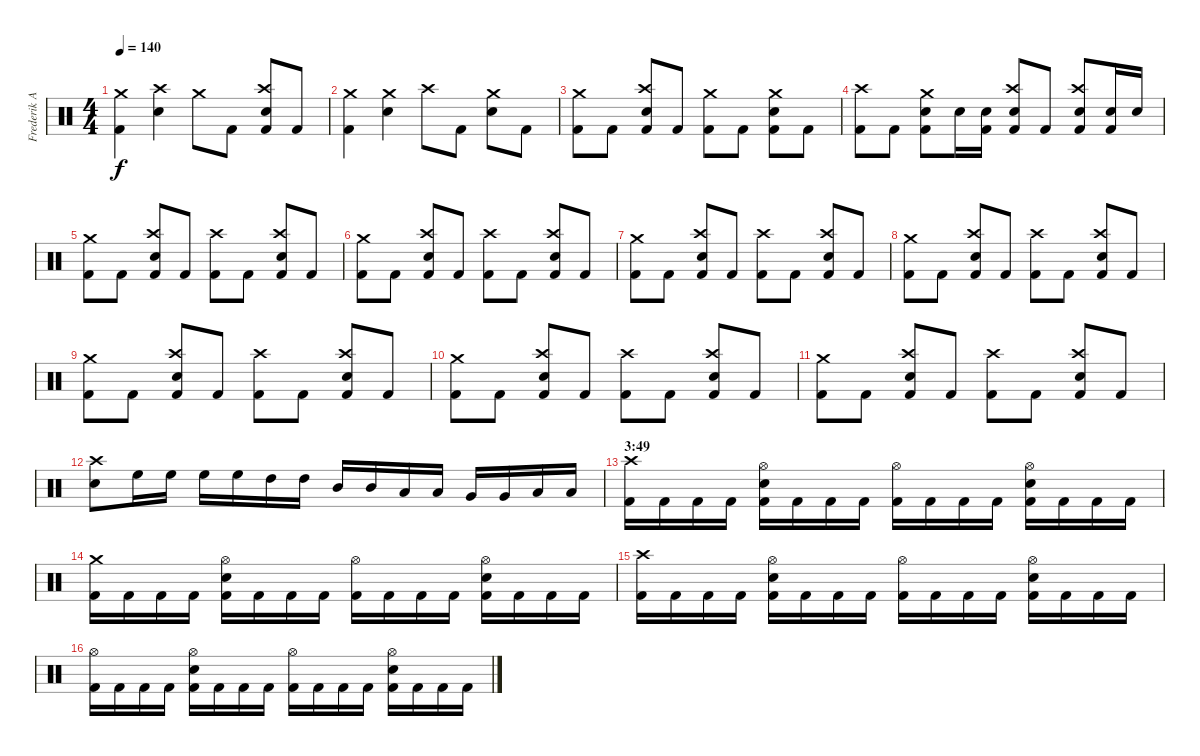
\track ("Frederik Anderson" "Frederik A") {instrument percussion}
\staff {score}
\articulation defaults
\ts (4 4)
\tempo 140
\clef neutral
\ks c
("Crash medium (hit)" "Kick (hit) 2").4{dy f} ("Crash high (hit)" "Electric Snare (hit)").4 "Crash medium (hit)".8 "Kick (hit) 2".8 ("Crash high (hit)" "Electric Snare (hit)" "Kick (hit) 2").8 "Kick (hit) 2".8 |
("Crash medium (hit)" "Kick (hit) 2").4 ("Crash medium (hit)" "Electric Snare (hit)").4 "Crash high (hit)".8 "Kick (hit) 2".8 ("Crash medium (hit)" "Electric Snare (hit)").8 "Kick (hit) 2".8 |
("Crash medium (hit)" "Kick (hit) 2").8 "Kick (hit) 2".8 ("Crash high (hit)" "Electric Snare (hit)" "Kick (hit) 2").8 "Kick (hit) 2".8 ("Crash medium (hit)" "Kick (hit) 2").8 "Kick (hit) 2".8 ("Crash medium (hit)" "Electric Snare (hit)" "Kick (hit) 2").8 "Kick (hit) 2".8 |
("Crash high (hit)" "Kick (hit) 2").8 "Kick (hit) 2".8 ("Crash medium (hit)" "Electric Snare (hit)" "Kick (hit) 2").8 "Electric Snare (hit)".16 ("Electric Snare (hit)" "Kick (hit) 2").16 ("Crash high (hit)" "Electric Snare (hit)" "Kick (hit) 2").8 "Kick (hit) 2".8 ("Crash high (hit)" "Electric Snare (hit)" "Kick (hit) 2").8 ("Electric Snare (hit)" "Kick (hit) 2").16 "Electric Snare (hit)".16 |
("Crash medium (hit)" "Kick (hit) 2").8 "Kick (hit) 2".8 ("Crash high (hit)" "Electric Snare (hit)" "Kick (hit) 2").8 "Kick (hit) 2".8 ("Crash high (hit)" "Kick (hit) 2").8 "Kick (hit) 2".8 ("Crash high (hit)" "Electric Snare (hit)" "Kick (hit) 2").8 "Kick (hit) 2".8 |
("Crash medium (hit)" "Kick (hit) 2").8 "Kick (hit) 2".8 ("Crash high (hit)" "Electric Snare (hit)" "Kick (hit) 2").8 "Kick (hit) 2".8 ("Crash high (hit)" "Kick (hit) 2").8 "Kick (hit) 2".8 ("Crash high (hit)" "Electric Snare (hit)" "Kick (hit) 2").8 "Kick (hit) 2".8 |
("Crash medium (hit)" "Kick (hit) 2").8 "Kick (hit) 2".8 ("Crash high (hit)" "Electric Snare (hit)" "Kick (hit) 2").8 "Kick (hit) 2".8 ("Crash high (hit)" "Kick (hit) 2").8 "Kick (hit) 2".8 ("Crash high (hit)" "Electric Snare (hit)" "Kick (hit) 2").8 "Kick (hit) 2".8 |
("Crash medium (hit)" "Kick (hit) 2").8 "Kick (hit) 2".8 ("Crash high (hit)" "Electric Snare (hit)" "Kick (hit) 2").8 "Kick (hit) 2".8 ("Crash high (hit)" "Kick (hit) 2").8 "Kick (hit) 2".8 ("Crash high (hit)" "Electric Snare (hit)" "Kick (hit) 2").8 "Kick (hit) 2".8 |
("Crash medium (hit)" "Kick (hit) 2").8 "Kick (hit) 2".8 ("Crash high (hit)" "Electric Snare (hit)" "Kick (hit) 2").8 "Kick (hit) 2".8 ("Crash high (hit)" "Kick (hit) 2").8 "Kick (hit) 2".8 ("Crash high (hit)" "Electric Snare (hit)" "Kick (hit) 2").8 "Kick (hit) 2".8 |
("Crash medium (hit)" "Kick (hit) 2").8 "Kick (hit) 2".8 ("Crash high (hit)" "Electric Snare (hit)" "Kick (hit) 2").8 "Kick (hit) 2".8 ("Crash high (hit)" "Kick (hit) 2").8 "Kick (hit) 2".8 ("Crash high (hit)" "Electric Snare (hit)" "Kick (hit) 2").8 "Kick (hit) 2".8 |
("Crash medium (hit)" "Kick (hit) 2").8 "Kick (hit) 2".8 ("Crash high (hit)" "Electric Snare (hit)" "Kick (hit) 2").8 "Kick (hit) 2".8 ("Crash high (hit)" "Kick (hit) 2").8 "Kick (hit) 2".8 ("Crash high (hit)" "Electric Snare (hit)" "Kick (hit) 2").8 "Kick (hit) 2".8 |
("Crash high (hit)" "Electric Snare (hit)").8 "High Floor Tom (hit)".16 "High Floor Tom (hit)".16 "High Floor Tom (hit)".16 "High Floor Tom (hit)".16 "High Tom (hit)".16 "High Tom (hit)".16 "Mid Tom (hit)".16 "Mid Tom (hit)".16 "Low Tom (hit)".16 "Low Tom (hit)".16 "Very Low Tom (hit)".16 "Very Low Tom (hit)".16 "Low Floor Tom (hit)".16 "Low Floor Tom (hit)".16 |
\section ("" "3:49")
("Crash high (hit)" "Kick (hit) 2").16 "Kick (hit) 2".16 "Kick (hit) 2".16 "Kick (hit) 2".16 ("Hi-Hat (open)" "Electric Snare (hit)" "Kick (hit) 2").16 "Kick (hit) 2".16 "Kick (hit) 2".16 "Kick (hit) 2".16 ("Hi-Hat (open)" "Kick (hit) 2").16 "Kick (hit) 2".16 "Kick (hit) 2".16 "Kick (hit) 2".16 ("Hi-Hat (open)" "Electric Snare (hit)" "Kick (hit) 2").16 "Kick (hit) 2".16 "Kick (hit) 2".16 "Kick (hit) 2".16 |
("Crash medium (hit)" "Kick (hit) 2").16 "Kick (hit) 2".16 "Kick (hit) 2".16 "Kick (hit) 2".16 ("Hi-Hat (open)" "Electric Snare (hit)" "Kick (hit) 2").16 "Kick (hit) 2".16 "Kick (hit) 2".16 "Kick (hit) 2".16 ("Hi-Hat (open)" "Kick (hit) 2").16 "Kick (hit) 2".16 "Kick (hit) 2".16 "Kick (hit) 2".16 ("Hi-Hat (open)" "Electric Snare (hit)" "Kick (hit) 2").16 "Kick (hit) 2".16 "Kick (hit) 2".16 "Kick (hit) 2".16 |
("Crash high (hit)" "Kick (hit) 2").16 "Kick (hit) 2".16 "Kick (hit) 2".16 "Kick (hit) 2".16 ("Hi-Hat (open)" "Electric Snare (hit)" "Kick (hit) 2").16 "Kick (hit) 2".16 "Kick (hit) 2".16 "Kick (hit) 2".16 ("Hi-Hat (open)" "Kick (hit) 2").16 "Kick (hit) 2".16 "Kick (hit) 2".16 "Kick (hit) 2".16 ("Hi-Hat (open)" "Electric Snare (hit)" "Kick (hit) 2").16 "Kick (hit) 2".16 "Kick (hit) 2".16 "Kick (hit) 2".16 |
("Hi-Hat (open)" "Kick (hit) 2").16 "Kick (hit) 2".16 "Kick (hit) 2".16 "Kick (hit) 2".16 ("Hi-Hat (open)" "Electric Snare (hit)" "Kick (hit) 2").16 "Kick (hit) 2".16 "Kick (hit) 2".16 "Kick (hit) 2".16 ("Hi-Hat (open)" "Kick (hit) 2").16 "Kick (hit) 2".16 "Kick (hit) 2".16 "Kick (hit) 2".16 ("Hi-Hat (open)" "Electric Snare (hit)" "Kick (hit) 2").16 "Kick (hit) 2".16 "Kick (hit) 2".16 "Kick (hit) 2".16
